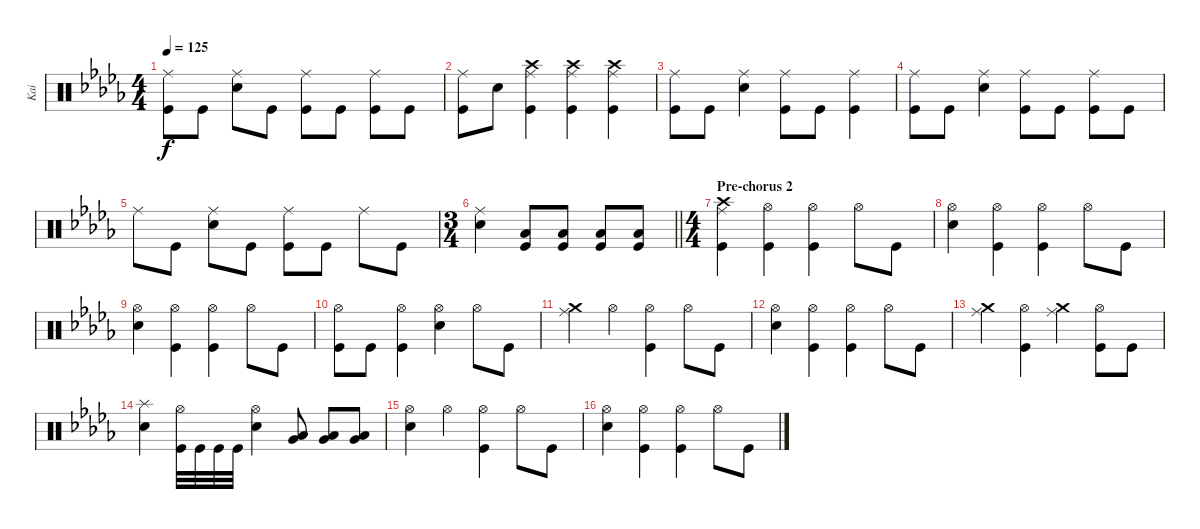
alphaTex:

\track ("Kai" "Kai") {instrument percussion}
\staff {score}
\articulation defaults
\ts (4 4)
\tempo 125
\clef neutral
\ks bbminor
("Kick (hit)" "Ride (middle)").8{dy f} "Kick (hit)".8 ("Snare (hit) 2" "Ride (middle)").8 "Kick (hit)".8 ("Kick (hit)" "Ride (middle)").8 "Kick (hit)".8 ("Ride (middle)" "Kick (hit)").8 "Kick (hit)".8 |
("Kick (hit)" "Ride (middle)").8 "Snare (hit) 2".8 ("Ride (middle)" "Crash high (hit)" "Kick (hit)").4 ("Ride (middle)" "Crash high (hit)" "Kick (hit)").4 ("Ride (middle)" "Crash high (hit)" "Kick (hit)").4 |
("Ride (middle)" "Kick (hit)").8 "Kick (hit)".8 ("Snare (hit) 2" "Ride (middle)").4 ("Ride (middle)" "Kick (hit)").8 "Kick (hit)".8 ("Kick (hit)" "Ride (middle)").4 |
("Kick (hit)" "Ride (middle)").8 "Kick (hit)".8 ("Snare (hit) 2" "Ride (middle)").4 ("Kick (hit)" "Ride (middle)").8 "Kick (hit)".8 ("Kick (hit)" "Ride (middle)").8 "Kick (hit)".8 |
"Ride (middle)".8 "Kick (hit)".8 ("Snare (hit) 2" "Ride (middle)").8 "Kick (hit)".8 ("Kick (hit)" "Ride (middle)").8 "Kick (hit)".8 "Ride (middle)".8 "Kick (hit)".8 |
\ts (3 4)
\barLineRight lightlight
("Ride (middle)" "Snare (hit) 2").4 ("Low Tom (hit)" "Kick (hit)").8 ("Low Tom (hit)" "Kick (hit)").8 ("Low Tom (hit)" "Kick (hit)").8 ("Low Tom (hit)" "Kick (hit)").8 |
\ts (4 4)
\section ("" "Pre-chorus 2")
("Crash high (hit)" "Ride (middle)" "Kick (hit)").4 ("Kick (hit)" "Hi-Hat (open)").4 ("Hi-Hat (open)" "Kick (hit)").4 "Hi-Hat (open)".8 "Kick (hit)".8 |
("Snare (hit) 2" "Hi-Hat (open)").4 ("Kick (hit)" "Hi-Hat (open)").4 ("Hi-Hat (open)" "Kick (hit)").4 "Hi-Hat (open)".8 "Kick (hit)".8 |
("Snare (hit) 2" "Hi-Hat (open)").4 ("Kick (hit)" "Hi-Hat (open)").4 ("Hi-Hat (open)" "Kick (hit)").4 "Hi-Hat (open)".8 "Kick (hit)".8 |
("Kick (hit)" "Hi-Hat (open)").8 "Kick (hit)".8 ("Kick (hit)" "Hi-Hat (open)").4 ("Snare (hit) 2" "Hi-Hat (open)").4 "Hi-Hat (open)".8 "Kick (hit)".8 |
("Crash medium (hit)" "Ride (middle)").4 "Hi-Hat (open)".4 ("Hi-Hat (open)" "Kick (hit)").4 "Hi-Hat (open)".8 "Kick (hit)".8 |
("Snare (hit) 2" "Hi-Hat (open)").4 ("Kick (hit)" "Hi-Hat (open)").4 ("Hi-Hat (open)" "Kick (hit)").4 "Hi-Hat (open)".8 "Kick (hit)".8 |
("Ride (middle)" "Crash medium (hit)").4 ("Kick (hit)" "Hi-Hat (open)").4 ("Ride (middle)" "Crash medium (hit)").4 ("Hi-Hat (open)" "Kick (hit)").8 "Kick (hit)".8 |
("Snare (hit) 2" "Splash (hit)").4 ("Kick (hit)" "Hi-Hat (open)").32 "Kick (hit)".32 "Kick (hit)".32 "Kick (hit)".32 ("Snare (hit) 2" "Hi-Hat (open)").4 ("Very Low Tom (hit)" "Low Tom (hit)").8 ("Low Tom (hit)" "Very Low Tom (hit)").8 ("Low Tom (hit)" "Very Low Tom (hit)").8 |
("Snare (hit) 2" "Hi-Hat (open)").4 "Hi-Hat (open)".4 ("Hi-Hat (open)" "Kick (hit)").4 "Hi-Hat (open)".8 "Kick (hit)".8 |
("Snare (hit) 2" "Hi-Hat (open)").4 ("Kick (hit)" "Hi-Hat (open)").4 ("Hi-Hat (open)" "Kick (hit)").4 "Hi-Hat (open)".8 "Kick (hit)".8
